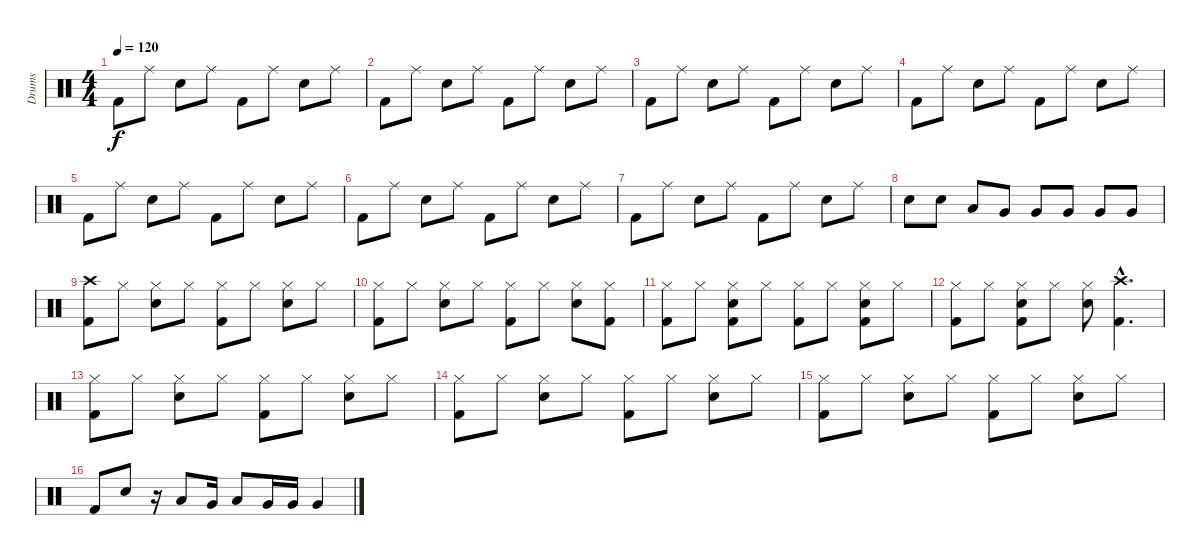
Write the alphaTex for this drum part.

\track ("Drums" "Drums") {instrument percussion}
\staff {score}
\articulation defaults
\ts (4 4)
\tempo 120
\clef neutral
\ks c "Kick (hit) 2".8{dy f} "Ride (middle)".8 "Electric Snare (hit)".8 "Ride (middle)".8 "Kick (hit) 2".8 "Ride (middle)".8 "Electric Snare (hit)".8 "Ride (middle)".8
|
"Kick (hit) 2".8 "Ride (middle)".8 "Electric Snare (hit)".8 "Ride (middle)".8 "Kick (hit) 2".8 "Ride (middle)".8 "Electric Snare (hit)".8 "Ride (middle)".8 |
"Kick (hit) 2".8 "Ride (middle)".8 "Electric Snare (hit)".8 "Ride (middle)".8 "Kick (hit) 2".8 "Ride (middle)".8 "Electric Snare (hit)".8 "Ride (middle)".8 |
"Kick (hit) 2".8 "Ride (middle)".8 "Electric Snare (hit)".8 "Ride (middle)".8 "Kick (hit) 2".8 "Ride (middle)".8 "Electric Snare (hit)".8 "Ride (middle)".8 |
"Kick (hit) 2".8 "Ride (middle)".8 "Electric Snare (hit)".8 "Ride (middle)".8 "Kick (hit) 2".8 "Ride (middle)".8 "Electric Snare (hit)".8 "Ride (middle)".8 |
"Kick (hit) 2".8 "Ride (middle)".8 "Electric Snare (hit)".8 "Ride (middle)".8 "Kick (hit) 2".8 "Ride (middle)".8 "Electric Snare (hit)".8 "Ride (middle)".8 |
"Kick (hit) 2".8 "Ride (middle)".8 "Electric Snare (hit)".8 "Ride (middle)".8 "Kick (hit) 2".8 "Ride (middle)".8 "Electric Snare (hit)".8 "Ride (middle)".8 |
"Electric Snare (hit)".8 "Electric Snare (hit)".8 "Low Tom (hit)".8 "Very Low Tom (hit)".8 "Very Low Tom (hit)".8 "Very Low Tom (hit)".8 "Very Low Tom (hit)".8 "Very Low Tom (hit)".8 |
("Crash high (hit)" "Kick (hit) 2").8 "Hi-Hat (closed)".8 ("Hi-Hat (closed)" "Electric Snare (hit)").8 "Hi-Hat (closed)".8 ("Hi-Hat (closed)" "Kick (hit) 2").8 "Hi-Hat (closed)".8 ("Hi-Hat (closed)" "Electric Snare (hit)").8 "Hi-Hat (closed)".8 |
("Hi-Hat (closed)" "Kick (hit) 2").8 "Hi-Hat (closed)".8 ("Hi-Hat (closed)" "Electric Snare (hit)").8 "Hi-Hat (closed)".8 ("Hi-Hat (closed)" "Kick (hit) 2").8 "Hi-Hat (closed)".8 ("Hi-Hat (closed)" "Electric Snare (hit)").8 ("Hi-Hat (closed)" "Kick (hit) 2").8 |
("Hi-Hat (closed)" "Kick (hit) 2").8 "Hi-Hat (closed)".8 ("Hi-Hat (closed)" "Electric Snare (hit)" "Kick (hit) 2").8 "Hi-Hat (closed)".8 ("Hi-Hat (closed)" "Kick (hit) 2").8 "Hi-Hat (closed)".8 ("Hi-Hat (closed)" "Electric Snare (hit)" "Kick (hit) 2").8 "Hi-Hat (closed)".8 |
("Hi-Hat (closed)" "Kick (hit) 2").8 "Hi-Hat (closed)".8 ("Hi-Hat (closed)" "Electric Snare (hit)" "Kick (hit) 2").8 "Hi-Hat (closed)".8 ("Hi-Hat (closed)" "Electric Snare (hit)").8 ("Crash high (hit)"{hac} "Kick (hit) 2"{hac}).4{d} |
("Hi-Hat (closed)" "Kick (hit) 2").8 "Hi-Hat (closed)".8 ("Hi-Hat (closed)" "Electric Snare (hit)").8 "Hi-Hat (closed)".8 ("Hi-Hat (closed)" "Kick (hit) 2").8 "Hi-Hat (closed)".8 ("Hi-Hat (closed)" "Electric Snare (hit)").8 "Hi-Hat (closed)".8 |
("Hi-Hat (closed)" "Kick (hit) 2").8 "Hi-Hat (closed)".8 ("Hi-Hat (closed)" "Electric Snare (hit)").8 "Hi-Hat (closed)".8 ("Hi-Hat (closed)" "Kick (hit) 2").8 "Hi-Hat (closed)".8 ("Hi-Hat (closed)" "Electric Snare (hit)").8 "Hi-Hat (closed)".8 |
("Hi-Hat (closed)" "Kick (hit) 2").8 "Hi-Hat (closed)".8 ("Hi-Hat (closed)" "Electric Snare (hit)").8 "Hi-Hat (closed)".8 ("Hi-Hat (closed)" "Kick (hit) 2").8 "Hi-Hat (closed)".8 ("Hi-Hat (closed)" "Electric Snare (hit)").8 "Hi-Hat (closed)".8 |
"Kick (hit) 2".8 "Electric Snare (hit)".8 r.16 "Low Tom (hit)".8 "Very Low Tom (hit)".16 "Low Tom (hit)".8 "Very Low Tom (hit)".16 "Very Low Tom (hit)".16 "Very Low Tom (hit)".4
